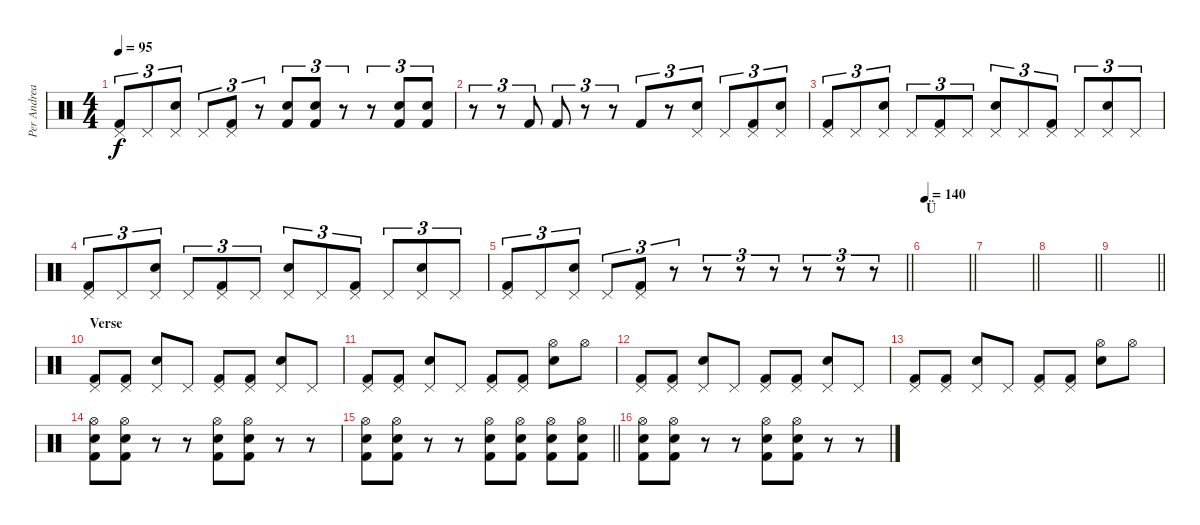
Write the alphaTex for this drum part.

\track ("Per Andreasson" "Per Andrea") {instrument percussion}
\staff {score}
\articulation defaults
\ts (4 4)
\tempo 95
\clef neutral
\ks c
("Pedal Hi-Hat (hit)" "Kick (hit) 2").8{tu (3 2) dy f} "Pedal Hi-Hat (hit)".8{tu (3 2)} ("Pedal Hi-Hat (hit)" "Snare (hit) 2").8{tu (3 2)} "Pedal Hi-Hat (hit)".8{tu (3 2)} ("Pedal Hi-Hat (hit)" "Kick (hit) 2").8{tu (3 2)} r.8{tu (3 2)} ("Snare (hit) 2" "Kick (hit) 2").8{tu (3 2)} ("Snare (hit) 2" "Kick (hit) 2").8{tu (3 2)} r.8{tu (3 2)} r.8{tu (3 2)} ("Snare (hit) 2" "Kick (hit) 2").8{tu (3 2)} ("Snare (hit) 2" "Kick (hit) 2").8{tu (3 2)} |
r.8{tu (3 2)} r.8{tu (3 2)} "Kick (hit) 2".8{tu (3 2)} "Kick (hit) 2".8{tu (3 2)} r.8{tu (3 2)} r.8{tu (3 2)} "Kick (hit) 2".8{tu (3 2)} r.8{tu (3 2)} ("Pedal Hi-Hat (hit)" "Snare (hit) 2").8{tu (3 2)} "Pedal Hi-Hat (hit)".8{tu (3 2)} ("Pedal Hi-Hat (hit)" "Kick (hit) 2").8{tu (3 2)} ("Pedal Hi-Hat (hit)" "Snare (hit) 2").8{tu (3 2)} |
("Pedal Hi-Hat (hit)" "Kick (hit) 2").8{tu (3 2)} "Pedal Hi-Hat (hit)".8{tu (3 2)} ("Pedal Hi-Hat (hit)" "Snare (hit) 2").8{tu (3 2)} "Pedal Hi-Hat (hit)".8{tu (3 2)} ("Pedal Hi-Hat (hit)" "Kick (hit) 2").8{tu (3 2)} "Pedal Hi-Hat (hit)".8{tu (3 2)} ("Pedal Hi-Hat (hit)" "Snare (hit) 2").8{tu (3 2)} "Pedal Hi-Hat (hit)".8{tu (3 2)} ("Pedal Hi-Hat (hit)" "Kick (hit) 2").8{tu (3 2)} "Pedal Hi-Hat (hit)".8{tu (3 2)} ("Pedal Hi-Hat (hit)" "Snare (hit) 2").8{tu (3 2)} "Pedal Hi-Hat (hit)".8{tu (3 2)} |
("Pedal Hi-Hat (hit)" "Kick (hit) 2").8{tu (3 2)} "Pedal Hi-Hat (hit)".8{tu (3 2)} ("Pedal Hi-Hat (hit)" "Snare (hit) 2").8{tu (3 2)} "Pedal Hi-Hat (hit)".8{tu (3 2)} ("Pedal Hi-Hat (hit)" "Kick (hit) 2").8{tu (3 2)} "Pedal Hi-Hat (hit)".8{tu (3 2)} ("Pedal Hi-Hat (hit)" "Snare (hit) 2").8{tu (3 2)} "Pedal Hi-Hat (hit)".8{tu (3 2)} ("Pedal Hi-Hat (hit)" "Kick (hit) 2").8{tu (3 2)} "Pedal Hi-Hat (hit)".8{tu (3 2)} ("Pedal Hi-Hat (hit)" "Snare (hit) 2").8{tu (3 2)} "Pedal Hi-Hat (hit)".8{tu (3 2)} |
\barLineRight lightlight
("Pedal Hi-Hat (hit)" "Kick (hit) 2").8{tu (3 2)} "Pedal Hi-Hat (hit)".8{tu (3 2)} ("Pedal Hi-Hat (hit)" "Snare (hit) 2").8{tu (3 2)} "Pedal Hi-Hat (hit)".8{tu (3 2)} ("Pedal Hi-Hat (hit)" "Kick (hit) 2").8{tu (3 2)} r.8{tu (3 2)} r.8{tu (3 2)} r.8{tu (3 2)} r.8{tu (3 2)} r.8{tu (3 2)} r.8{tu (3 2)} r.8{tu (3 2)} |
\section ("" "Ü")
\tempo 140
\barLineRight lightlight
|
\barLineRight lightlight
|
\barLineRight lightlight
|
\barLineRight lightlight
|
\section ("" "Verse")
("Pedal Hi-Hat (hit)" "Kick (hit) 2").8 ("Pedal Hi-Hat (hit)" "Kick (hit) 2").8 ("Pedal Hi-Hat (hit)" "Snare (hit) 2").8 "Pedal Hi-Hat (hit)".8 ("Pedal Hi-Hat (hit)" "Kick (hit) 2").8 ("Pedal Hi-Hat (hit)" "Kick (hit) 2").8 ("Pedal Hi-Hat (hit)" "Snare (hit) 2").8 "Pedal Hi-Hat (hit)".8 |
("Pedal Hi-Hat (hit)" "Kick (hit) 2").8 ("Pedal Hi-Hat (hit)" "Kick (hit) 2").8 ("Pedal Hi-Hat (hit)" "Snare (hit) 2").8 "Pedal Hi-Hat (hit)".8 ("Pedal Hi-Hat (hit)" "Kick (hit) 2").8 ("Pedal Hi-Hat (hit)" "Kick (hit) 2").8 ("Hi-Hat (open)" "Snare (hit) 2").8 "Hi-Hat (open)".8 |
("Pedal Hi-Hat (hit)" "Kick (hit) 2").8 ("Pedal Hi-Hat (hit)" "Kick (hit) 2").8 ("Pedal Hi-Hat (hit)" "Snare (hit) 2").8 "Pedal Hi-Hat (hit)".8 ("Pedal Hi-Hat (hit)" "Kick (hit) 2").8 ("Pedal Hi-Hat (hit)" "Kick (hit) 2").8 ("Pedal Hi-Hat (hit)" "Snare (hit) 2").8 "Pedal Hi-Hat (hit)".8 |
("Pedal Hi-Hat (hit)" "Kick (hit) 2").8 ("Pedal Hi-Hat (hit)" "Kick (hit) 2").8 ("Pedal Hi-Hat (hit)" "Snare (hit) 2").8 "Pedal Hi-Hat (hit)".8 ("Pedal Hi-Hat (hit)" "Kick (hit) 2").8 ("Pedal Hi-Hat (hit)" "Kick (hit) 2").8 ("Hi-Hat (open)" "Snare (hit) 2").8 "Hi-Hat (open)".8 |
("Hi-Hat (open)" "Snare (hit) 2" "Kick (hit) 2").8 ("Hi-Hat (open)" "Snare (hit) 2" "Kick (hit) 2").8 r.8 r.8 ("Hi-Hat (open)" "Snare (hit) 2" "Kick (hit) 2").8 ("Hi-Hat (open)" "Snare (hit) 2" "Kick (hit) 2").8 r.8 r.8 |
\barLineRight lightlight
("Hi-Hat (open)" "Snare (hit) 2" "Kick (hit) 2").8 ("Hi-Hat (open)" "Snare (hit) 2" "Kick (hit) 2").8 r.8 r.8 ("Hi-Hat (open)" "Snare (hit) 2" "Kick (hit) 2").8 ("Hi-Hat (open)" "Snare (hit) 2" "Kick (hit) 2").8 ("Hi-Hat (open)" "Snare (hit) 2" "Kick (hit) 2").8 ("Hi-Hat (open)" "Snare (hit) 2" "Kick (hit) 2").8 |
("Hi-Hat (open)" "Snare (hit) 2" "Kick (hit) 2").8 ("Hi-Hat (open)" "Snare (hit) 2" "Kick (hit) 2").8 r.8 r.8 ("Hi-Hat (open)" "Snare (hit) 2" "Kick (hit) 2").8 ("Hi-Hat (open)" "Snare (hit) 2" "Kick (hit) 2").8 r.8 r.8
